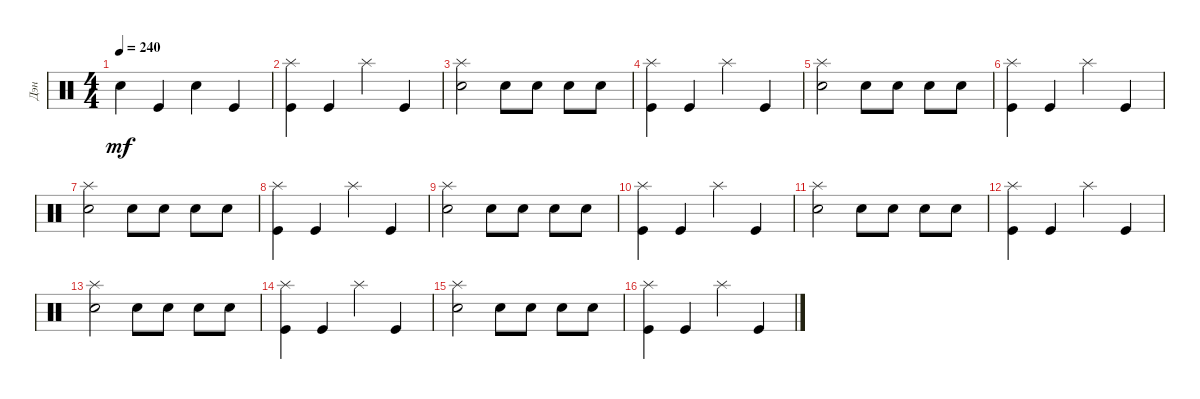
\track ("Дэн" "Дэн") {instrument percussion}
\staff {score}
\articulation defaults
\ts (4 4)
\tempo 240
\clef neutral
\ks c "Snare (hit) 2".4{dy mf} "Kick (hit)".4 "Snare (hit) 2".4 "Kick (hit)".4
|
("Kick (hit)" "Splash (hit)").4 "Kick (hit)".4 "Splash (hit)".4 "Kick (hit)".4 |
("Snare (hit) 2" "Splash (hit)").2 "Snare (hit) 2".8 "Snare (hit) 2".8 "Snare (hit) 2".8 "Snare (hit) 2".8 |
("Kick (hit)" "Splash (hit)").4 "Kick (hit)".4 "Splash (hit)".4 "Kick (hit)".4 |
("Snare (hit) 2" "Splash (hit)").2 "Snare (hit) 2".8 "Snare (hit) 2".8 "Snare (hit) 2".8 "Snare (hit) 2".8 |
("Kick (hit)" "Splash (hit)").4 "Kick (hit)".4 "Splash (hit)".4 "Kick (hit)".4 |
("Snare (hit) 2" "Splash (hit)").2 "Snare (hit) 2".8 "Snare (hit) 2".8 "Snare (hit) 2".8 "Snare (hit) 2".8 |
("Kick (hit)" "Splash (hit)").4 "Kick (hit)".4 "Splash (hit)".4 "Kick (hit)".4 |
("Snare (hit) 2" "Splash (hit)").2 "Snare (hit) 2".8 "Snare (hit) 2".8 "Snare (hit) 2".8 "Snare (hit) 2".8 |
("Kick (hit)" "Splash (hit)").4 "Kick (hit)".4 "Splash (hit)".4 "Kick (hit)".4 |
("Snare (hit) 2" "Splash (hit)").2 "Snare (hit) 2".8 "Snare (hit) 2".8 "Snare (hit) 2".8 "Snare (hit) 2".8 |
("Kick (hit)" "Splash (hit)").4 "Kick (hit)".4 "Splash (hit)".4 "Kick (hit)".4 |
("Snare (hit) 2" "Splash (hit)").2 "Snare (hit) 2".8 "Snare (hit) 2".8 "Snare (hit) 2".8 "Snare (hit) 2".8 |
("Kick (hit)" "Splash (hit)").4 "Kick (hit)".4 "Splash (hit)".4 "Kick (hit)".4 |
("Snare (hit) 2" "Splash (hit)").2 "Snare (hit) 2".8 "Snare (hit) 2".8 "Snare (hit) 2".8 "Snare (hit) 2".8 |
("Kick (hit)" "Splash (hit)").4 "Kick (hit)".4 "Splash (hit)".4 "Kick (hit)".4
